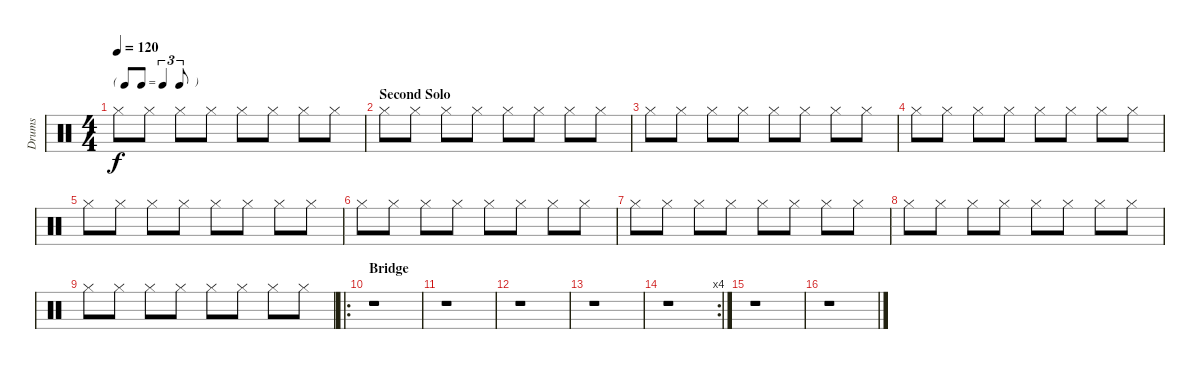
\track ("Drums" "Drums") {instrument percussion}
\staff {score}
\articulation defaults
\ts (4 4)
\tf triplet8th
\tempo 120
\clef neutral
\ks c "Hi-Hat (closed)".8{dy f} "Hi-Hat (closed)".8 "Hi-Hat (closed)".8 "Hi-Hat (closed)".8 "Hi-Hat (closed)".8 "Hi-Hat (closed)".8 "Hi-Hat (closed)".8 "Hi-Hat (closed)".8
|
\section ("" "Second Solo")
"Hi-Hat (closed)".8 "Hi-Hat (closed)".8 "Hi-Hat (closed)".8 "Hi-Hat (closed)".8 "Hi-Hat (closed)".8 "Hi-Hat (closed)".8 "Hi-Hat (closed)".8 "Hi-Hat (closed)".8 |
"Hi-Hat (closed)".8 "Hi-Hat (closed)".8 "Hi-Hat (closed)".8 "Hi-Hat (closed)".8 "Hi-Hat (closed)".8 "Hi-Hat (closed)".8 "Hi-Hat (closed)".8 "Hi-Hat (closed)".8 |
"Hi-Hat (closed)".8 "Hi-Hat (closed)".8 "Hi-Hat (closed)".8 "Hi-Hat (closed)".8 "Hi-Hat (closed)".8 "Hi-Hat (closed)".8 "Hi-Hat (closed)".8 "Hi-Hat (closed)".8 |
"Hi-Hat (closed)".8 "Hi-Hat (closed)".8 "Hi-Hat (closed)".8 "Hi-Hat (closed)".8 "Hi-Hat (closed)".8 "Hi-Hat (closed)".8 "Hi-Hat (closed)".8 "Hi-Hat (closed)".8 |
"Hi-Hat (closed)".8 "Hi-Hat (closed)".8 "Hi-Hat (closed)".8 "Hi-Hat (closed)".8 "Hi-Hat (closed)".8 "Hi-Hat (closed)".8 "Hi-Hat (closed)".8 "Hi-Hat (closed)".8 |
"Hi-Hat (closed)".8 "Hi-Hat (closed)".8 "Hi-Hat (closed)".8 "Hi-Hat (closed)".8 "Hi-Hat (closed)".8 "Hi-Hat (closed)".8 "Hi-Hat (closed)".8 "Hi-Hat (closed)".8 |
"Hi-Hat (closed)".8 "Hi-Hat (closed)".8 "Hi-Hat (closed)".8 "Hi-Hat (closed)".8 "Hi-Hat (closed)".8 "Hi-Hat (closed)".8 "Hi-Hat (closed)".8 "Hi-Hat (closed)".8 |
"Hi-Hat (closed)".8 "Hi-Hat (closed)".8 "Hi-Hat (closed)".8 "Hi-Hat (closed)".8 "Hi-Hat (closed)".8 "Hi-Hat (closed)".8 "Hi-Hat (closed)".8 "Hi-Hat (closed)".8 |
\ro
\section ("" "Bridge")
r.1 |
r.1 |
r.1 |
r.1 |
\rc 4
r.1 |
r.1 |
r.1
